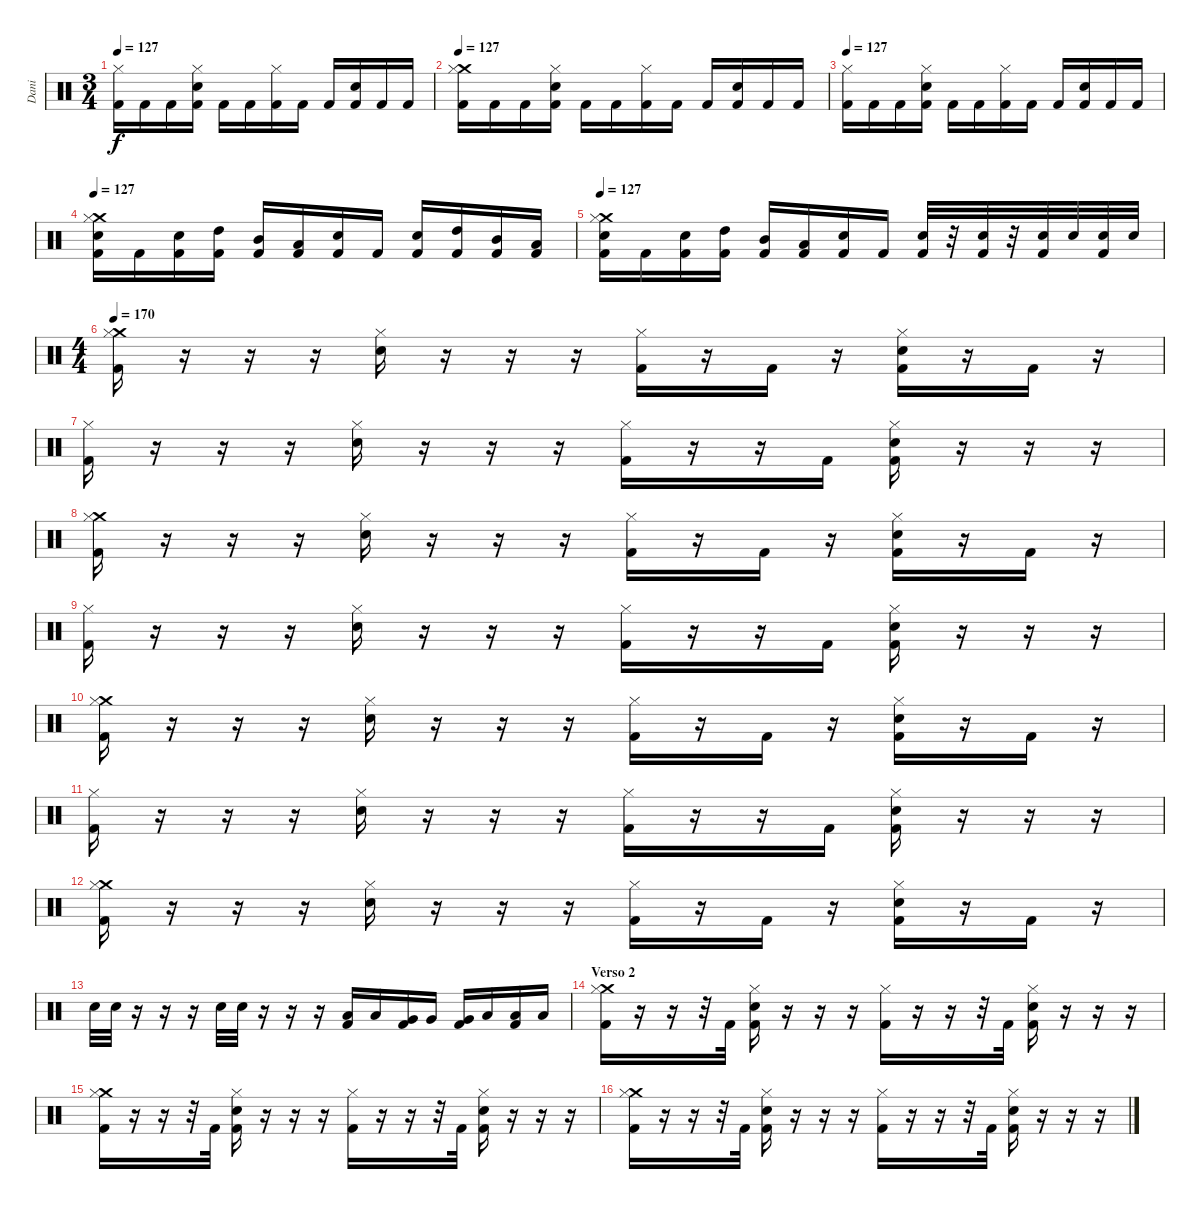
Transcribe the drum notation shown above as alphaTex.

\track ("Dani" "Dani") {instrument percussion}
\staff {score}
\articulation defaults
\ts (3 4)
\tempo 127
\clef neutral
\ks c
("Hi-Hat (closed)" "Kick (hit) 2").16{dy f} "Kick (hit) 2".16 "Kick (hit) 2".16 ("Hi-Hat (closed)" "Electric Snare (hit)" "Kick (hit) 2").16 "Kick (hit) 2".16 "Kick (hit) 2".16 ("Hi-Hat (closed)" "Kick (hit) 2").16 "Kick (hit) 2".16 "Kick (hit) 2".16 ("Electric Snare (hit)" "Kick (hit) 2").16 "Kick (hit) 2".16 "Kick (hit) 2".16 |
\tempo 127
("Crash medium (hit)" "Hi-Hat (closed)" "Kick (hit) 2").16 "Kick (hit) 2".16 "Kick (hit) 2".16 ("Hi-Hat (closed)" "Electric Snare (hit)" "Kick (hit) 2").16 "Kick (hit) 2".16 "Kick (hit) 2".16 ("Hi-Hat (closed)" "Kick (hit) 2").16 "Kick (hit) 2".16 "Kick (hit) 2".16 ("Electric Snare (hit)" "Kick (hit) 2").16 "Kick (hit) 2".16 "Kick (hit) 2".16 |
\tempo 127
("Hi-Hat (closed)" "Kick (hit) 2").16 "Kick (hit) 2".16 "Kick (hit) 2".16 ("Hi-Hat (closed)" "Electric Snare (hit)" "Kick (hit) 2").16 "Kick (hit) 2".16 "Kick (hit) 2".16 ("Hi-Hat (closed)" "Kick (hit) 2").16 "Kick (hit) 2".16 "Kick (hit) 2".16 ("Electric Snare (hit)" "Kick (hit) 2").16 "Kick (hit) 2".16 "Kick (hit) 2".16 |
\tempo 127
("Crash medium (hit)" "Hi-Hat (closed)" "Electric Snare (hit)" "Kick (hit) 2").16 "Kick (hit) 2".16 ("Electric Snare (hit)" "Kick (hit) 2").16 ("High Tom (hit)" "Kick (hit) 2").16 ("Mid Tom (hit)" "Kick (hit) 2").16 ("Low Tom (hit)" "Kick (hit) 2").16 ("Electric Snare (hit)" "Kick (hit) 2").16 "Kick (hit) 2".16 ("Electric Snare (hit)" "Kick (hit) 2").16 ("High Tom (hit)" "Kick (hit) 2").16 ("Mid Tom (hit)" "Kick (hit) 2").16 ("Low Tom (hit)" "Kick (hit) 2").16 |
\tempo 127
("Crash medium (hit)" "Hi-Hat (closed)" "Electric Snare (hit)" "Kick (hit) 2").16 "Kick (hit) 2".16 ("Electric Snare (hit)" "Kick (hit) 2").16 ("High Tom (hit)" "Kick (hit) 2").16 ("Mid Tom (hit)" "Kick (hit) 2").16 ("Low Tom (hit)" "Kick (hit) 2").16 ("Electric Snare (hit)" "Kick (hit) 2").16 "Kick (hit) 2".16 ("Electric Snare (hit)" "Kick (hit) 2").32 r.32 ("Electric Snare (hit)" "Kick (hit) 2").32 r.32 ("Electric Snare (hit)" "Kick (hit) 2").32 "Electric Snare (hit)".32 ("Electric Snare (hit)" "Kick (hit) 2").32 "Electric Snare (hit)".32 |
\ts (4 4)
\tempo 170
("Crash medium (hit)" "Hi-Hat (closed)" "Kick (hit) 2").16 r.16 r.16 r.16 ("Hi-Hat (closed)" "Electric Snare (hit)").16 r.16 r.16 r.16 ("Hi-Hat (closed)" "Kick (hit) 2").16 r.16 "Kick (hit) 2".16 r.16 ("Hi-Hat (closed)" "Electric Snare (hit)" "Kick (hit) 2").16 r.16 "Kick (hit) 2".16 r.16 |
("Hi-Hat (closed)" "Kick (hit) 2").16 r.16 r.16 r.16 ("Hi-Hat (closed)" "Electric Snare (hit)").16 r.16 r.16 r.16 ("Hi-Hat (closed)" "Kick (hit) 2").16 r.16 r.16 "Kick (hit) 2".16 ("Hi-Hat (closed)" "Electric Snare (hit)" "Kick (hit) 2").16 r.16 r.16 r.16 |
("Crash medium (hit)" "Hi-Hat (closed)" "Kick (hit) 2").16 r.16 r.16 r.16 ("Hi-Hat (closed)" "Electric Snare (hit)").16 r.16 r.16 r.16 ("Hi-Hat (closed)" "Kick (hit) 2").16 r.16 "Kick (hit) 2".16 r.16 ("Hi-Hat (closed)" "Electric Snare (hit)" "Kick (hit) 2").16 r.16 "Kick (hit) 2".16 r.16 |
("Hi-Hat (closed)" "Kick (hit) 2").16 r.16 r.16 r.16 ("Hi-Hat (closed)" "Electric Snare (hit)").16 r.16 r.16 r.16 ("Hi-Hat (closed)" "Kick (hit) 2").16 r.16 r.16 "Kick (hit) 2".16 ("Hi-Hat (closed)" "Electric Snare (hit)" "Kick (hit) 2").16 r.16 r.16 r.16 |
("Crash medium (hit)" "Hi-Hat (closed)" "Kick (hit) 2").16 r.16 r.16 r.16 ("Hi-Hat (closed)" "Electric Snare (hit)").16 r.16 r.16 r.16 ("Hi-Hat (closed)" "Kick (hit) 2").16 r.16 "Kick (hit) 2".16 r.16 ("Hi-Hat (closed)" "Electric Snare (hit)" "Kick (hit) 2").16 r.16 "Kick (hit) 2".16 r.16 |
("Hi-Hat (closed)" "Kick (hit) 2").16 r.16 r.16 r.16 ("Hi-Hat (closed)" "Electric Snare (hit)").16 r.16 r.16 r.16 ("Hi-Hat (closed)" "Kick (hit) 2").16 r.16 r.16 "Kick (hit) 2".16 ("Hi-Hat (closed)" "Electric Snare (hit)" "Kick (hit) 2").16 r.16 r.16 r.16 |
("Crash medium (hit)" "Hi-Hat (closed)" "Kick (hit) 2").16 r.16 r.16 r.16 ("Hi-Hat (closed)" "Electric Snare (hit)").16 r.16 r.16 r.16 ("Hi-Hat (closed)" "Kick (hit) 2").16 r.16 "Kick (hit) 2".16 r.16 ("Hi-Hat (closed)" "Electric Snare (hit)" "Kick (hit) 2").16 r.16 "Kick (hit) 2".16 r.16 |
"Electric Snare (hit)".32 "Electric Snare (hit)".32 r.16 r.16 r.16 "Electric Snare (hit)".32 "Electric Snare (hit)".32 r.16 r.16 r.16 ("Low Tom (hit)" "Kick (hit) 2").16 "Low Tom (hit)".16 ("Very Low Tom (hit)" "Kick (hit) 2").16 "Very Low Tom (hit)".16 ("Very Low Tom (hit)" "Kick (hit) 2").16 "Low Floor Tom (hit)".16 ("Low Floor Tom (hit)" "Kick (hit) 2").16 "Low Floor Tom (hit)".16 |
\section ("" "Verso 2")
("Crash medium (hit)" "Hi-Hat (closed)" "Kick (hit) 2").16 r.16 r.16 r.32 "Kick (hit) 2".32 ("Hi-Hat (closed)" "Electric Snare (hit)" "Kick (hit) 2").16 r.16 r.16 r.16 ("Hi-Hat (closed)" "Kick (hit) 2").16 r.16 r.16 r.32 "Kick (hit) 2".32 ("Hi-Hat (closed)" "Electric Snare (hit)" "Kick (hit) 2").16 r.16 r.16 r.16 |
("Crash medium (hit)" "Hi-Hat (closed)" "Kick (hit) 2").16 r.16 r.16 r.32 "Kick (hit) 2".32 ("Hi-Hat (closed)" "Electric Snare (hit)" "Kick (hit) 2").16 r.16 r.16 r.16 ("Hi-Hat (closed)" "Kick (hit) 2").16 r.16 r.16 r.32 "Kick (hit) 2".32 ("Hi-Hat (closed)" "Electric Snare (hit)" "Kick (hit) 2").16 r.16 r.16 r.16 |
("Crash medium (hit)" "Hi-Hat (closed)" "Kick (hit) 2").16 r.16 r.16 r.32 "Kick (hit) 2".32 ("Hi-Hat (closed)" "Electric Snare (hit)" "Kick (hit) 2").16 r.16 r.16 r.16 ("Hi-Hat (closed)" "Kick (hit) 2").16 r.16 r.16 r.32 "Kick (hit) 2".32 ("Hi-Hat (closed)" "Electric Snare (hit)" "Kick (hit) 2").16 r.16 r.16 r.16
